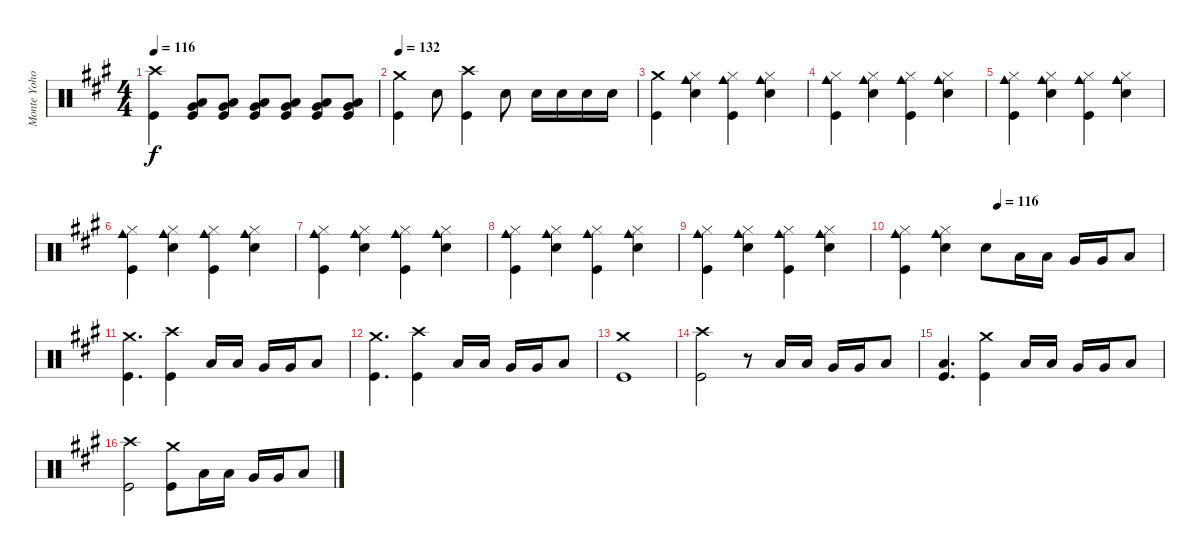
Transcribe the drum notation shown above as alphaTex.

\track ("Monte Yoho Drums" "Monte Yoho") {instrument percussion}
\staff {score}
\articulation defaults
\ts (4 4)
\tempo 116
\clef neutral
\ks a
("Crash high (hit)" "Kick (hit)").4{dy f} ("Low Tom (hit)" "Very Low Tom (hit)" "Kick (hit)").8 ("Low Tom (hit)" "Very Low Tom (hit)" "Kick (hit)").8 ("Low Tom (hit)" "Very Low Tom (hit)" "Kick (hit)").8 ("Low Tom (hit)" "Very Low Tom (hit)" "Kick (hit)").8 ("Low Tom (hit)" "Very Low Tom (hit)" "Kick (hit)").8 ("Low Tom (hit)" "Very Low Tom (hit)" "Kick (hit)").8 |
\tempo 132
("Crash medium (hit)" "Kick (hit)").4 "Snare (hit) 2".8 ("Crash high (hit)" "Kick (hit)").4 "Snare (hit) 2".8 "Snare (hit) 2".16 "Snare (hit) 2".16 "Snare (hit) 2".16 "Snare (hit) 2".16 |
("Crash medium (hit)" "Kick (hit)").4 ("Hi-Hat (closed)" "Cowbell medium (hit)" "Snare (hit) 2").4 ("Hi-Hat (closed)" "Cowbell medium (hit)" "Kick (hit)").4 ("Hi-Hat (closed)" "Cowbell medium (hit)" "Snare (hit) 2").4 |
("Hi-Hat (closed)" "Cowbell medium (hit)" "Kick (hit)").4 ("Hi-Hat (closed)" "Cowbell medium (hit)" "Snare (hit) 2").4 ("Hi-Hat (closed)" "Cowbell medium (hit)" "Kick (hit)").4 ("Hi-Hat (closed)" "Cowbell medium (hit)" "Snare (hit) 2").4 |
("Hi-Hat (closed)" "Cowbell medium (hit)" "Kick (hit)").4 ("Hi-Hat (closed)" "Cowbell medium (hit)" "Snare (hit) 2").4 ("Hi-Hat (closed)" "Cowbell medium (hit)" "Kick (hit)").4 ("Hi-Hat (closed)" "Cowbell medium (hit)" "Snare (hit) 2").4 |
("Hi-Hat (closed)" "Cowbell medium (hit)" "Kick (hit)").4 ("Hi-Hat (closed)" "Cowbell medium (hit)" "Snare (hit) 2").4 ("Hi-Hat (closed)" "Cowbell medium (hit)" "Kick (hit)").4 ("Hi-Hat (closed)" "Cowbell medium (hit)" "Snare (hit) 2").4 |
("Hi-Hat (closed)" "Cowbell medium (hit)" "Kick (hit)").4 ("Hi-Hat (closed)" "Cowbell medium (hit)" "Snare (hit) 2").4 ("Hi-Hat (closed)" "Cowbell medium (hit)" "Kick (hit)").4 ("Hi-Hat (closed)" "Cowbell medium (hit)" "Snare (hit) 2").4 |
("Hi-Hat (closed)" "Cowbell medium (hit)" "Kick (hit)").4 ("Hi-Hat (closed)" "Cowbell medium (hit)" "Snare (hit) 2").4 ("Hi-Hat (closed)" "Cowbell medium (hit)" "Kick (hit)").4 ("Hi-Hat (closed)" "Cowbell medium (hit)" "Snare (hit) 2").4 |
("Hi-Hat (closed)" "Cowbell medium (hit)" "Kick (hit)").4 ("Hi-Hat (closed)" "Cowbell medium (hit)" "Snare (hit) 2").4 ("Hi-Hat (closed)" "Cowbell medium (hit)" "Kick (hit)").4 ("Hi-Hat (closed)" "Cowbell medium (hit)" "Snare (hit) 2").4 |
\tempo (116 0.375)
("Hi-Hat (closed)" "Cowbell medium (hit)" "Kick (hit)").4 ("Hi-Hat (closed)" "Cowbell medium (hit)" "Snare (hit) 2").4 "Snare (hit) 2".8 "Low Tom (hit)".16 "Low Tom (hit)".16 "Very Low Tom (hit)".16 "Very Low Tom (hit)".16 "Low Floor Tom (hit)".8 |
("Crash medium (hit)" "Kick (hit)").4{d} ("Crash high (hit)" "Kick (hit)").4 "Low Tom (hit)".16 "Low Tom (hit)".16 "Very Low Tom (hit)".16 "Very Low Tom (hit)".16 "Low Floor Tom (hit)".8 |
("Crash medium (hit)" "Kick (hit)").4{d} ("Crash high (hit)" "Kick (hit)").4 "Low Tom (hit)".16 "Low Tom (hit)".16 "Very Low Tom (hit)".16 "Very Low Tom (hit)".16 "Low Floor Tom (hit)".8 |
("Crash medium (hit)" "Kick (hit)").1 |
("Crash high (hit)" "Kick (hit)").2 r.8 "Low Tom (hit)".16 "Low Tom (hit)".16 "Very Low Tom (hit)".16 "Very Low Tom (hit)".16 "Low Floor Tom (hit)".8 |
("Low Floor Tom (hit)" "Kick (hit)").4{d} ("Crash medium (hit)" "Kick (hit)").4 "Low Tom (hit)".16 "Low Tom (hit)".16 "Very Low Tom (hit)".16 "Very Low Tom (hit)".16 "Low Floor Tom (hit)".8 |
("Crash high (hit)" "Kick (hit)").2 ("Crash medium (hit)" "Kick (hit)").8 "Low Tom (hit)".16 "Low Tom (hit)".16 "Very Low Tom (hit)".16 "Very Low Tom (hit)".16 "Low Floor Tom (hit)".8
